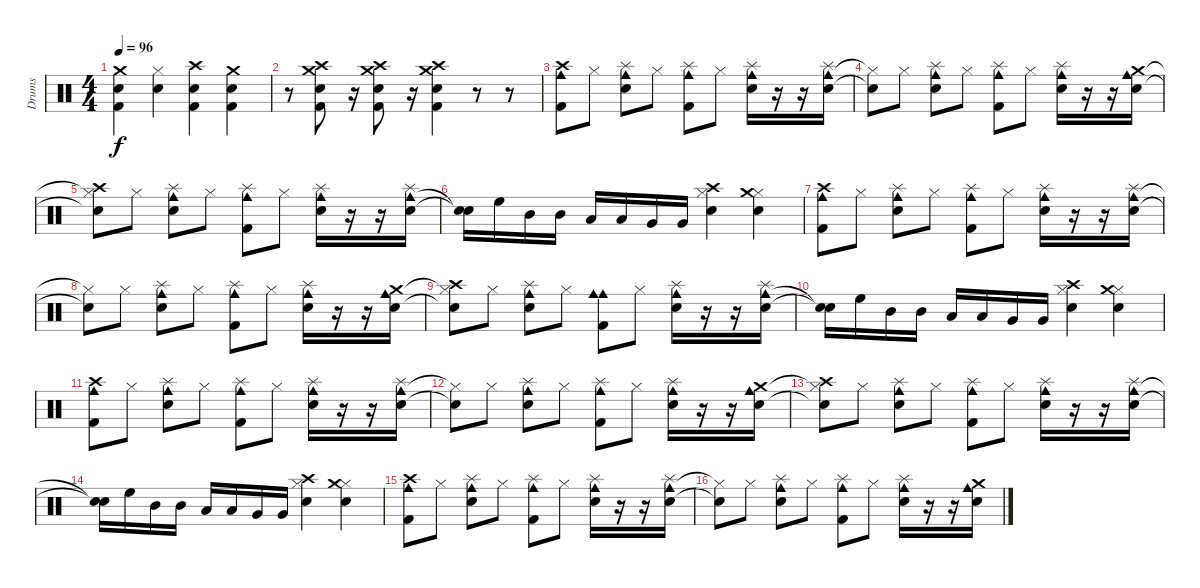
\track ("Drums" "Drums") {instrument percussion}
\staff {score}
\articulation defaults
\ts (4 4)
\tempo 96
\clef neutral
\ks c
("Snare (hit) 2" "Kick (hit) 2" "Crash medium (hit)").4{dy f} ("Snare (hit) 2" "Hi-Hat (closed)").4 ("Snare (hit) 2" "Kick (hit) 2" "Crash high (hit)").4 ("Snare (hit) 2" "Kick (hit) 2" "Crash medium (hit)").4 |
r.8 ("Snare (hit) 2" "Kick (hit) 2" "Crash high (hit)" "Crash medium (hit)").8 r.16 ("Snare (hit) 2" "Kick (hit) 2" "Crash high (hit)" "Crash medium (hit)").8 r.16 ("Snare (hit) 2" "Kick (hit) 2" "Crash high (hit)" "Crash medium (hit)").4 r.8 r.8 |
("Kick (hit) 2" "Cowbell medium (hit)" "Crash high (hit)").8 "Hi-Hat (closed)".8 ("Snare (hit) 2" "Cowbell medium (hit)" "Splash (hit)").8 "Hi-Hat (closed)".8 ("Kick (hit) 2" "Cowbell medium (hit)" "Splash (hit)").8 "Hi-Hat (closed)".8 ("Snare (hit) 2" "Cowbell medium (hit)" "Splash (hit)").16 r.16 r.16 ("Snare (hit) 2" "Cowbell medium (hit)" "Splash (hit)").16 |
("Snare (hit) 2"{t} "Hi-Hat (closed)"{t}).8 "Hi-Hat (closed)".8 ("Snare (hit) 2" "Cowbell medium (hit)" "Splash (hit)").8 "Hi-Hat (closed)".8 ("Kick (hit) 2" "Cowbell medium (hit)" "Splash (hit)").8 "Hi-Hat (closed)".8 ("Snare (hit) 2" "Cowbell medium (hit)" "Splash (hit)").16 r.16 r.16 ("Snare (hit) 2" "Cowbell medium (hit)" "Crash medium (hit)").16 |
("Snare (hit) 2"{t} "Hi-Hat (closed)"{t} "Crash high (hit)").8 "Hi-Hat (closed)".8 ("Snare (hit) 2" "Cowbell medium (hit)" "Splash (hit)").8 "Hi-Hat (closed)".8 ("Kick (hit) 2" "Cowbell medium (hit)" "Splash (hit)").8 "Hi-Hat (closed)".8 ("Snare (hit) 2" "Cowbell medium (hit)" "Splash (hit)").16 r.16 r.16 ("Snare (hit) 2" "Cowbell medium (hit)" "Splash (hit)").16 |
("Snare (hit)"{t} "Snare (hit)"{t}).16 "High Floor Tom (hit)".16 "Mid Tom (hit)".16 "Mid Tom (hit)".16 "Low Tom (hit)".16 "Low Tom (hit)".16 "Very Low Tom (hit)".16 "Very Low Tom (hit)".16 ("Snare (hit) 2" "Hi-Hat (closed)" "Crash high (hit)").4 ("Snare (hit) 2" "Hi-Hat (closed)" "Crash medium (hit)").4 |
("Kick (hit) 2" "Cowbell medium (hit)" "Crash high (hit)").8 "Hi-Hat (closed)".8 ("Snare (hit) 2" "Cowbell medium (hit)" "Splash (hit)").8 "Hi-Hat (closed)".8 ("Kick (hit) 2" "Cowbell medium (hit)" "Splash (hit)").8 "Hi-Hat (closed)".8 ("Snare (hit) 2" "Cowbell medium (hit)" "Splash (hit)").16 r.16 r.16 ("Snare (hit) 2" "Cowbell medium (hit)" "Splash (hit)").16 |
("Snare (hit) 2"{t} "Hi-Hat (closed)"{t}).8 "Hi-Hat (closed)".8 ("Snare (hit) 2" "Cowbell medium (hit)" "Splash (hit)").8 "Hi-Hat (closed)".8 ("Kick (hit) 2" "Cowbell medium (hit)" "Splash (hit)").8 "Hi-Hat (closed)".8 ("Snare (hit) 2" "Cowbell medium (hit)" "Splash (hit)").16 r.16 r.16 ("Snare (hit) 2" "Cowbell medium (hit)" "Crash medium (hit)").16 |
("Snare (hit) 2"{t} "Hi-Hat (closed)"{t} "Crash high (hit)").8 "Hi-Hat (closed)".8 ("Snare (hit) 2" "Cowbell medium (hit)" "Splash (hit)").8 "Hi-Hat (closed)".8 ("Kick (hit) 2" "Cowbell medium (hit)" "Cowbell medium (hit)").8 "Hi-Hat (closed)".8 ("Snare (hit) 2" "Cowbell medium (hit)" "Splash (hit)").16 r.16 r.16 ("Snare (hit) 2" "Cowbell medium (hit)" "Splash (hit)").16 |
("Snare (hit)"{t} "Snare (hit)"{t}).16 "High Floor Tom (hit)".16 "Mid Tom (hit)".16 "Mid Tom (hit)".16 "Low Tom (hit)".16 "Low Tom (hit)".16 "Very Low Tom (hit)".16 "Very Low Tom (hit)".16 ("Snare (hit) 2" "Hi-Hat (closed)" "Crash high (hit)").4 ("Snare (hit) 2" "Hi-Hat (closed)" "Crash medium (hit)").4 |
("Kick (hit) 2" "Cowbell medium (hit)" "Crash high (hit)").8 "Hi-Hat (closed)".8 ("Snare (hit) 2" "Cowbell medium (hit)" "Splash (hit)").8 "Hi-Hat (closed)".8 ("Kick (hit) 2" "Cowbell medium (hit)" "Splash (hit)").8 "Hi-Hat (closed)".8 ("Snare (hit) 2" "Cowbell medium (hit)" "Splash (hit)").16 r.16 r.16 ("Snare (hit) 2" "Cowbell medium (hit)" "Splash (hit)").16 |
("Snare (hit) 2"{t} "Hi-Hat (closed)"{t}).8 "Hi-Hat (closed)".8 ("Snare (hit) 2" "Cowbell medium (hit)" "Splash (hit)").8 "Hi-Hat (closed)".8 ("Kick (hit) 2" "Cowbell medium (hit)" "Splash (hit)").8 "Hi-Hat (closed)".8 ("Snare (hit) 2" "Cowbell medium (hit)" "Splash (hit)").16 r.16 r.16 ("Snare (hit) 2" "Cowbell medium (hit)" "Crash medium (hit)").16 |
("Snare (hit) 2"{t} "Hi-Hat (closed)"{t} "Crash high (hit)").8 "Hi-Hat (closed)".8 ("Snare (hit) 2" "Cowbell medium (hit)" "Splash (hit)").8 "Hi-Hat (closed)".8 ("Kick (hit) 2" "Cowbell medium (hit)" "Splash (hit)").8 "Hi-Hat (closed)".8 ("Snare (hit) 2" "Cowbell medium (hit)" "Splash (hit)").16 r.16 r.16 ("Snare (hit) 2" "Cowbell medium (hit)" "Splash (hit)").16 |
("Snare (hit)"{t} "Snare (hit)"{t}).16 "High Floor Tom (hit)".16 "Mid Tom (hit)".16 "Mid Tom (hit)".16 "Low Tom (hit)".16 "Low Tom (hit)".16 "Very Low Tom (hit)".16 "Very Low Tom (hit)".16 ("Snare (hit) 2" "Hi-Hat (closed)" "Crash high (hit)").4 ("Snare (hit) 2" "Hi-Hat (closed)" "Crash medium (hit)").4 |
("Kick (hit) 2" "Cowbell medium (hit)" "Crash high (hit)").8 "Hi-Hat (closed)".8 ("Snare (hit) 2" "Cowbell medium (hit)" "Splash (hit)").8 "Hi-Hat (closed)".8 ("Kick (hit) 2" "Cowbell medium (hit)" "Splash (hit)").8 "Hi-Hat (closed)".8 ("Snare (hit) 2" "Cowbell medium (hit)" "Splash (hit)").16 r.16 r.16 ("Snare (hit) 2" "Cowbell medium (hit)" "Splash (hit)").16 |
("Snare (hit) 2"{t} "Hi-Hat (closed)"{t}).8 "Hi-Hat (closed)".8 ("Snare (hit) 2" "Cowbell medium (hit)" "Splash (hit)").8 "Hi-Hat (closed)".8 ("Kick (hit) 2" "Cowbell medium (hit)" "Splash (hit)").8 "Hi-Hat (closed)".8 ("Snare (hit) 2" "Cowbell medium (hit)" "Splash (hit)").16 r.16 r.16 ("Snare (hit) 2" "Cowbell medium (hit)" "Crash medium (hit)").16
